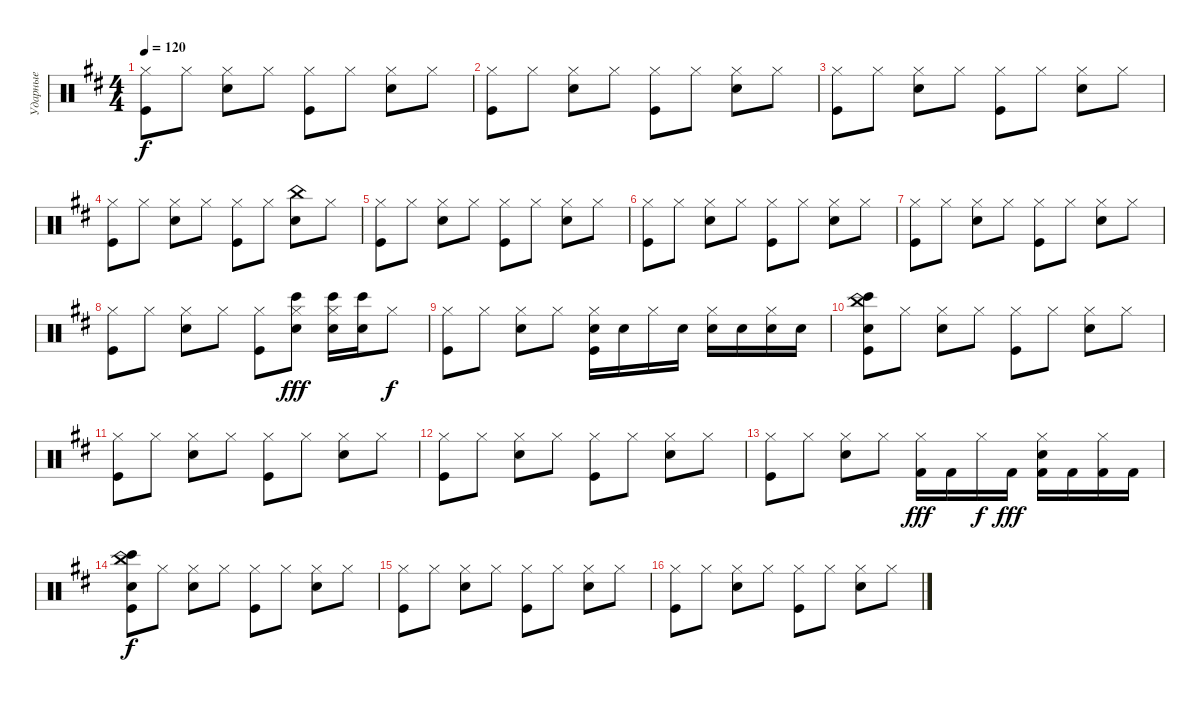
\track ("Ударные" "Ударные") {instrument percussion}
\staff {score}
\articulation defaults
\ts (4 4)
\tempo 120
\clef neutral
\ks bminor
("Hi-Hat (closed)" "Kick (hit)").8{dy f} "Hi-Hat (closed)".8 ("Hi-Hat (closed)" "Snare (hit) 2").8 "Hi-Hat (closed)".8 ("Hi-Hat (closed)" "Kick (hit)").8 "Hi-Hat (closed)".8 ("Hi-Hat (closed)" "Snare (hit) 2").8 "Hi-Hat (closed)".8 |
("Hi-Hat (closed)" "Kick (hit)").8 "Hi-Hat (closed)".8 ("Hi-Hat (closed)" "Snare (hit) 2").8 "Hi-Hat (closed)".8 ("Hi-Hat (closed)" "Kick (hit)").8 "Hi-Hat (closed)".8 ("Hi-Hat (closed)" "Snare (hit) 2").8 "Hi-Hat (closed)".8 |
("Hi-Hat (closed)" "Kick (hit)").8 "Hi-Hat (closed)".8 ("Hi-Hat (closed)" "Snare (hit) 2").8 "Hi-Hat (closed)".8 ("Hi-Hat (closed)" "Kick (hit)").8 "Hi-Hat (closed)".8 ("Hi-Hat (closed)" "Snare (hit) 2").8 "Hi-Hat (closed)".8 |
("Hi-Hat (closed)" "Kick (hit)").8 "Hi-Hat (closed)".8 ("Hi-Hat (closed)" "Snare (hit) 2").8 "Hi-Hat (closed)".8 ("Hi-Hat (closed)" "Kick (hit)").8 "Hi-Hat (closed)".8 ("China (hit)" "Snare (hit) 2").8{balance 14} "Hi-Hat (closed)".8{balance 8} |
("Hi-Hat (closed)" "Kick (hit)").8 "Hi-Hat (closed)".8 ("Hi-Hat (closed)" "Snare (hit) 2").8 "Hi-Hat (closed)".8 ("Hi-Hat (closed)" "Kick (hit)").8 "Hi-Hat (closed)".8 ("Hi-Hat (closed)" "Snare (hit) 2").8 "Hi-Hat (closed)".8 |
("Hi-Hat (closed)" "Kick (hit)").8 "Hi-Hat (closed)".8 ("Hi-Hat (closed)" "Snare (hit) 2").8 "Hi-Hat (closed)".8 ("Hi-Hat (closed)" "Kick (hit)").8 "Hi-Hat (closed)".8 ("Hi-Hat (closed)" "Snare (hit) 2").8 "Hi-Hat (closed)".8 |
("Hi-Hat (closed)" "Kick (hit)").8 "Hi-Hat (closed)".8 ("Hi-Hat (closed)" "Snare (hit) 2").8 "Hi-Hat (closed)".8 ("Hi-Hat (closed)" "Kick (hit)").8 "Hi-Hat (closed)".8 ("Hi-Hat (closed)" "Snare (hit) 2").8 "Hi-Hat (closed)".8 |
\ks d
("Hi-Hat (closed)" "Kick (hit)").8 "Hi-Hat (closed)".8 ("Hi-Hat (closed)" "Snare (hit) 2").8 "Hi-Hat (closed)".8 ("Hi-Hat (closed)" "Kick (hit)").8 ("Hi-Hat (closed)" "Bongo High (hit)" "Hand Clap (hit)").8{dy fff} ("Hi-Hat (closed)" "Snare (hit) 2" "Bongo High (hit)").16 ("Bongo High (hit)" "Hand Clap (hit)").16 "Hi-Hat (closed)".8{dy f} |
("Hi-Hat (closed)" "Kick (hit)").8 "Hi-Hat (closed)".8 ("Hi-Hat (closed)" "Snare (hit) 2").8 "Hi-Hat (closed)".8 ("Hi-Hat (closed)" "Kick (hit)" "Snare (hit) 2").16 "Snare (hit) 2".16 "Hi-Hat (closed)".16 "Snare (hit) 2".16 ("Hi-Hat (closed)" "Snare (hit) 2").16 "Snare (hit) 2".16 ("Hi-Hat (closed)" "Snare (hit) 2").16 "Snare (hit) 2".16 |
\ks bminor
("Bongo High (hit)" "Kick (hit)" "China (hit)" "Hand Clap (hit)").8 "Hi-Hat (closed)".8 ("Hi-Hat (closed)" "Snare (hit) 2").8 "Hi-Hat (closed)".8 ("Hi-Hat (closed)" "Kick (hit)").8 "Hi-Hat (closed)".8 ("Hi-Hat (closed)" "Snare (hit) 2").8 "Hi-Hat (closed)".8 |
("Hi-Hat (closed)" "Kick (hit)").8 "Hi-Hat (closed)".8 ("Hi-Hat (closed)" "Snare (hit) 2").8 "Hi-Hat (closed)".8 ("Hi-Hat (closed)" "Kick (hit)").8 "Hi-Hat (closed)".8 ("Hi-Hat (closed)" "Snare (hit) 2").8 "Hi-Hat (closed)".8 |
("Hi-Hat (closed)" "Kick (hit)").8 "Hi-Hat (closed)".8 ("Hi-Hat (closed)" "Snare (hit) 2").8 "Hi-Hat (closed)".8 ("Hi-Hat (closed)" "Kick (hit)").8 "Hi-Hat (closed)".8 ("Hi-Hat (closed)" "Snare (hit) 2").8 "Hi-Hat (closed)".8 |
("Hi-Hat (closed)" "Kick (hit)").8 "Hi-Hat (closed)".8 ("Hi-Hat (closed)" "Snare (hit) 2").8 "Hi-Hat (closed)".8 ("Hi-Hat (closed)" "Kick (hit) 2").16{dy fff} "Kick (hit) 2".16 "Hi-Hat (closed)".16{dy f} "Kick (hit) 2".16{dy fff} ("Hi-Hat (closed)" "Snare (hit) 2" "Kick (hit) 2").16 "Kick (hit) 2".16 ("Hi-Hat (closed)" "Kick (hit) 2").16 "Kick (hit) 2".16 |
("Bongo High (hit)" "Kick (hit)" "China (hit)" "Hand Clap (hit)").8{dy f balance 12} "Hi-Hat (closed)".8{balance 8} ("Hi-Hat (closed)" "Snare (hit) 2").8 "Hi-Hat (closed)".8 ("Hi-Hat (closed)" "Kick (hit)").8 "Hi-Hat (closed)".8 ("Hi-Hat (closed)" "Snare (hit) 2").8 "Hi-Hat (closed)".8 |
("Hi-Hat (closed)" "Kick (hit)").8 "Hi-Hat (closed)".8 ("Hi-Hat (closed)" "Snare (hit) 2").8 "Hi-Hat (closed)".8 ("Hi-Hat (closed)" "Kick (hit)").8 "Hi-Hat (closed)".8 ("Hi-Hat (closed)" "Snare (hit) 2").8 "Hi-Hat (closed)".8 |
("Hi-Hat (closed)" "Kick (hit)").8 "Hi-Hat (closed)".8 ("Hi-Hat (closed)" "Snare (hit) 2").8 "Hi-Hat (closed)".8 ("Hi-Hat (closed)" "Kick (hit)").8 "Hi-Hat (closed)".8 ("Hi-Hat (closed)" "Snare (hit) 2").8 "Hi-Hat (closed)".8
